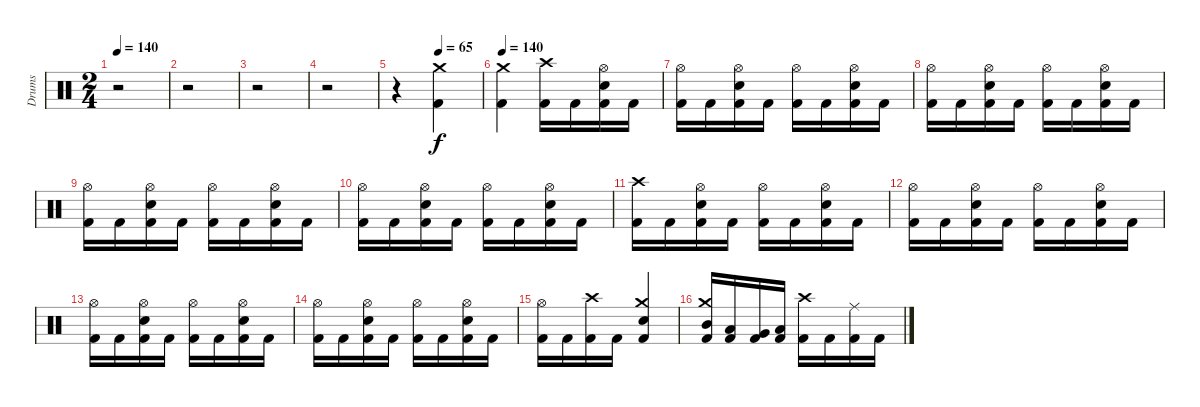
\track ("Drums" "Drums") {instrument percussion}
\staff {score}
\articulation defaults
\ts (2 4)
\tempo 140
\clef neutral
\ks c
r.2{dy f} |
r.2 |
r.2 |
r.2 |
\tempo (65 0.5)
r.4 ("Kick (hit) 2" "Crash medium (hit)").4 |
\tempo 140
("Kick (hit) 2" "Crash medium (hit)").4 ("Kick (hit) 2" "Crash high (hit)").16 "Kick (hit) 2".16 ("Kick (hit) 2" "Electric Snare (hit)" "Hi-Hat (open)").16 "Kick (hit) 2".16 |
("Kick (hit) 2" "Hi-Hat (open)").16 "Kick (hit) 2".16 ("Kick (hit) 2" "Electric Snare (hit)" "Hi-Hat (open)").16 "Kick (hit) 2".16 ("Kick (hit) 2" "Hi-Hat (open)").16 "Kick (hit) 2".16 ("Kick (hit) 2" "Electric Snare (hit)" "Hi-Hat (open)").16 "Kick (hit) 2".16 |
("Kick (hit) 2" "Hi-Hat (open)").16 "Kick (hit) 2".16 ("Kick (hit) 2" "Electric Snare (hit)" "Hi-Hat (open)").16 "Kick (hit) 2".16 ("Kick (hit) 2" "Hi-Hat (open)").16 "Kick (hit) 2".16 ("Kick (hit) 2" "Electric Snare (hit)" "Hi-Hat (open)").16 "Kick (hit) 2".16 |
("Kick (hit) 2" "Hi-Hat (open)").16 "Kick (hit) 2".16 ("Kick (hit) 2" "Electric Snare (hit)" "Hi-Hat (open)").16 "Kick (hit) 2".16 ("Kick (hit) 2" "Hi-Hat (open)").16 "Kick (hit) 2".16 ("Kick (hit) 2" "Electric Snare (hit)" "Hi-Hat (open)").16 "Kick (hit) 2".16 |
("Kick (hit) 2" "Hi-Hat (open)").16 "Kick (hit) 2".16 ("Kick (hit) 2" "Electric Snare (hit)" "Hi-Hat (open)").16 "Kick (hit) 2".16 ("Kick (hit) 2" "Hi-Hat (open)").16 "Kick (hit) 2".16 ("Kick (hit) 2" "Electric Snare (hit)" "Hi-Hat (open)").16 "Kick (hit) 2".16 |
("Kick (hit) 2" "Crash high (hit)").16 "Kick (hit) 2".16 ("Kick (hit) 2" "Electric Snare (hit)" "Hi-Hat (open)").16 "Kick (hit) 2".16 ("Kick (hit) 2" "Hi-Hat (open)").16 "Kick (hit) 2".16 ("Kick (hit) 2" "Electric Snare (hit)" "Hi-Hat (open)").16 "Kick (hit) 2".16 |
("Kick (hit) 2" "Hi-Hat (open)").16 "Kick (hit) 2".16 ("Kick (hit) 2" "Electric Snare (hit)" "Hi-Hat (open)").16 "Kick (hit) 2".16 ("Kick (hit) 2" "Hi-Hat (open)").16 "Kick (hit) 2".16 ("Kick (hit) 2" "Electric Snare (hit)" "Hi-Hat (open)").16 "Kick (hit) 2".16 |
("Kick (hit) 2" "Hi-Hat (open)").16 "Kick (hit) 2".16 ("Kick (hit) 2" "Electric Snare (hit)" "Hi-Hat (open)").16 "Kick (hit) 2".16 ("Kick (hit) 2" "Hi-Hat (open)").16 "Kick (hit) 2".16 ("Kick (hit) 2" "Electric Snare (hit)" "Hi-Hat (open)").16 "Kick (hit) 2".16 |
("Kick (hit) 2" "Hi-Hat (open)").16 "Kick (hit) 2".16 ("Kick (hit) 2" "Electric Snare (hit)" "Hi-Hat (open)").16 "Kick (hit) 2".16 ("Kick (hit) 2" "Hi-Hat (open)").16 "Kick (hit) 2".16 ("Kick (hit) 2" "Electric Snare (hit)" "Hi-Hat (open)").16 "Kick (hit) 2".16 |
("Kick (hit) 2" "Hi-Hat (open)").16 "Kick (hit) 2".16 ("Kick (hit) 2" "Crash high (hit)").16 "Kick (hit) 2".16 ("Kick (hit) 2" "Electric Snare (hit)" "Crash medium (hit)").4 |
("Kick (hit) 2" "Mid Tom (hit)" "Crash medium (hit)").16 ("Kick (hit) 2" "Low Tom (hit)").16 ("Kick (hit) 2" "Very Low Tom (hit)").16 ("Kick (hit) 2" "Low Floor Tom (hit)").16 ("Kick (hit) 2" "Crash high (hit)").16 "Kick (hit) 2".16 ("Kick (hit) 2" "Ride (middle)").16 "Kick (hit) 2".16
